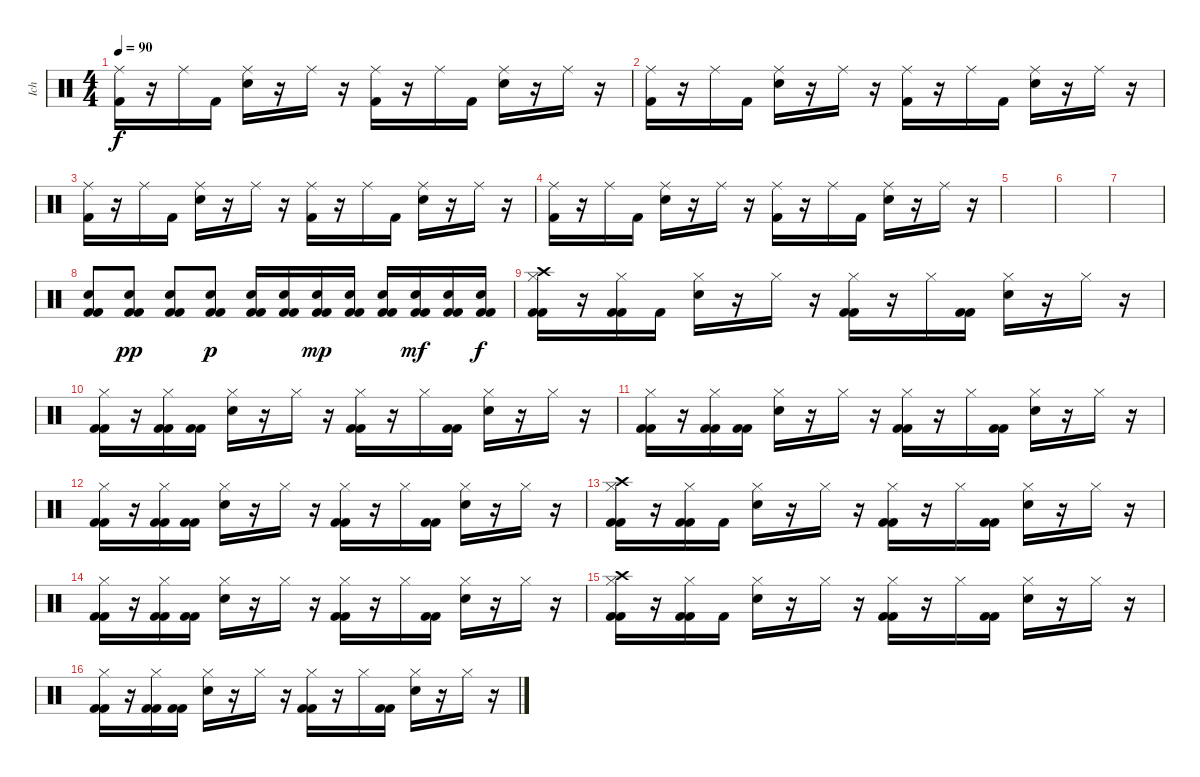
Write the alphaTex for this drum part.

\track ("Ich" "Ich") {instrument percussion}
\staff {score}
\articulation defaults
\ts (4 4)
\tempo 90
\clef neutral
\ks c
("Ride (middle)" "Kick (hit) 2").16{dy f} r.16 "Ride (middle)".16 "Kick (hit) 2".16 ("Ride (middle)" "Snare (hit) 2").16 r.16 "Ride (middle)".16 r.16 ("Ride (middle)" "Kick (hit) 2").16 r.16 "Ride (middle)".16 "Kick (hit) 2".16 ("Ride (middle)" "Snare (hit) 2").16 r.16 "Ride (middle)".16 r.16 |
("Ride (middle)" "Kick (hit) 2").16 r.16 "Ride (middle)".16 "Kick (hit) 2".16 ("Ride (middle)" "Snare (hit) 2").16 r.16 "Ride (middle)".16 r.16 ("Ride (middle)" "Kick (hit) 2").16 r.16 "Ride (middle)".16 "Kick (hit) 2".16 ("Ride (middle)" "Snare (hit) 2").16 r.16 "Ride (middle)".16 r.16 |
("Ride (middle)" "Kick (hit) 2").16 r.16 "Ride (middle)".16 "Kick (hit) 2".16 ("Ride (middle)" "Snare (hit) 2").16 r.16 "Ride (middle)".16 r.16 ("Ride (middle)" "Kick (hit) 2").16 r.16 "Ride (middle)".16 "Kick (hit) 2".16 ("Ride (middle)" "Snare (hit) 2").16 r.16 "Ride (middle)".16 r.16 |
("Ride (middle)" "Kick (hit) 2").16 r.16 "Ride (middle)".16 "Kick (hit) 2".16 ("Ride (middle)" "Snare (hit) 2").16 r.16 "Ride (middle)".16 r.16 ("Ride (middle)" "Kick (hit) 2").16 r.16 "Ride (middle)".16 "Kick (hit) 2".16 ("Ride (middle)" "Snare (hit) 2").16 r.16 "Ride (middle)".16 r.16 |
|
|
|
("Snare (hit) 2" "Kick (hit) 2" "Kick (hit) 2").8 ("Snare (hit) 2" "Kick (hit) 2" "Kick (hit) 2").8{dy pp} ("Snare (hit) 2" "Kick (hit) 2" "Kick (hit) 2").8 ("Snare (hit) 2" "Kick (hit) 2" "Kick (hit) 2").8{dy p} ("Snare (hit) 2" "Kick (hit) 2" "Kick (hit) 2").16 ("Snare (hit) 2" "Kick (hit) 2" "Kick (hit) 2").16 ("Snare (hit) 2" "Kick (hit) 2" "Kick (hit) 2").16{dy mp} ("Snare (hit) 2" "Kick (hit) 2" "Kick (hit) 2").16 ("Snare (hit) 2" "Kick (hit) 2" "Kick (hit) 2").16 ("Snare (hit) 2" "Kick (hit) 2" "Kick (hit) 2").16{dy mf} ("Snare (hit) 2" "Kick (hit) 2" "Kick (hit) 2").16 ("Snare (hit) 2" "Kick (hit) 2" "Kick (hit) 2").16{dy f} |
("Hi-Hat (closed)" "Crash high (hit)" "Kick (hit) 2" "Kick (hit) 2").16 r.16 ("Hi-Hat (closed)" "Kick (hit) 2" "Kick (hit) 2").16 "Kick (hit) 2".16 ("Hi-Hat (closed)" "Snare (hit) 2").16 r.16 "Hi-Hat (closed)".16 r.16 ("Hi-Hat (closed)" "Kick (hit) 2" "Kick (hit) 2").16 r.16 "Hi-Hat (closed)".16 ("Kick (hit) 2" "Kick (hit) 2").16 ("Hi-Hat (closed)" "Snare (hit) 2").16 r.16 "Hi-Hat (closed)".16 r.16 |
("Hi-Hat (closed)" "Kick (hit) 2" "Kick (hit) 2").16 r.16 ("Hi-Hat (closed)" "Kick (hit) 2" "Kick (hit) 2").16 ("Kick (hit) 2" "Kick (hit) 2").16 ("Hi-Hat (closed)" "Snare (hit) 2").16 r.16 "Hi-Hat (closed)".16 r.16 ("Hi-Hat (closed)" "Kick (hit) 2" "Kick (hit) 2").16 r.16 "Hi-Hat (closed)".16 ("Kick (hit) 2" "Kick (hit) 2").16 ("Hi-Hat (closed)" "Snare (hit) 2").16 r.16 "Hi-Hat (closed)".16 r.16 |
("Hi-Hat (closed)" "Kick (hit) 2" "Kick (hit) 2").16 r.16 ("Hi-Hat (closed)" "Kick (hit) 2" "Kick (hit) 2").16 ("Kick (hit) 2" "Kick (hit) 2").16 ("Hi-Hat (closed)" "Snare (hit) 2").16 r.16 "Hi-Hat (closed)".16 r.16 ("Hi-Hat (closed)" "Kick (hit) 2" "Kick (hit) 2").16 r.16 "Hi-Hat (closed)".16 ("Kick (hit) 2" "Kick (hit) 2").16 ("Hi-Hat (closed)" "Snare (hit) 2").16 r.16 "Hi-Hat (closed)".16 r.16 |
("Hi-Hat (closed)" "Kick (hit) 2" "Kick (hit) 2").16 r.16 ("Hi-Hat (closed)" "Kick (hit) 2" "Kick (hit) 2").16 ("Kick (hit) 2" "Kick (hit) 2").16 ("Hi-Hat (closed)" "Snare (hit) 2").16 r.16 "Hi-Hat (closed)".16 r.16 ("Hi-Hat (closed)" "Kick (hit) 2" "Kick (hit) 2").16 r.16 "Hi-Hat (closed)".16 ("Kick (hit) 2" "Kick (hit) 2").16 ("Hi-Hat (closed)" "Snare (hit) 2").16 r.16 "Hi-Hat (closed)".16 r.16 |
("Hi-Hat (closed)" "Crash high (hit)" "Kick (hit) 2" "Kick (hit) 2").16 r.16 ("Hi-Hat (closed)" "Kick (hit) 2" "Kick (hit) 2").16 "Kick (hit) 2".16 ("Hi-Hat (closed)" "Snare (hit) 2").16 r.16 "Hi-Hat (closed)".16 r.16 ("Hi-Hat (closed)" "Kick (hit) 2" "Kick (hit) 2").16 r.16 "Hi-Hat (closed)".16 ("Kick (hit) 2" "Kick (hit) 2").16 ("Hi-Hat (closed)" "Snare (hit) 2").16 r.16 "Hi-Hat (closed)".16 r.16 |
("Hi-Hat (closed)" "Kick (hit) 2" "Kick (hit) 2").16 r.16 ("Hi-Hat (closed)" "Kick (hit) 2" "Kick (hit) 2").16 ("Kick (hit) 2" "Kick (hit) 2").16 ("Hi-Hat (closed)" "Snare (hit) 2").16 r.16 "Hi-Hat (closed)".16 r.16 ("Hi-Hat (closed)" "Kick (hit) 2" "Kick (hit) 2").16 r.16 "Hi-Hat (closed)".16 ("Kick (hit) 2" "Kick (hit) 2").16 ("Hi-Hat (closed)" "Snare (hit) 2").16 r.16 "Hi-Hat (closed)".16 r.16 |
("Hi-Hat (closed)" "Crash high (hit)" "Kick (hit) 2" "Kick (hit) 2").16 r.16 ("Hi-Hat (closed)" "Kick (hit) 2" "Kick (hit) 2").16 "Kick (hit) 2".16 ("Hi-Hat (closed)" "Snare (hit) 2").16 r.16 "Hi-Hat (closed)".16 r.16 ("Hi-Hat (closed)" "Kick (hit) 2" "Kick (hit) 2").16 r.16 "Hi-Hat (closed)".16 ("Kick (hit) 2" "Kick (hit) 2").16 ("Hi-Hat (closed)" "Snare (hit) 2").16 r.16 "Hi-Hat (closed)".16 r.16 |
("Hi-Hat (closed)" "Kick (hit) 2" "Kick (hit) 2").16 r.16 ("Hi-Hat (closed)" "Kick (hit) 2" "Kick (hit) 2").16 ("Kick (hit) 2" "Kick (hit) 2").16 ("Hi-Hat (closed)" "Snare (hit) 2").16 r.16 "Hi-Hat (closed)".16 r.16 ("Hi-Hat (closed)" "Kick (hit) 2" "Kick (hit) 2").16 r.16 "Hi-Hat (closed)".16 ("Kick (hit) 2" "Kick (hit) 2").16 ("Hi-Hat (closed)" "Snare (hit) 2").16 r.16 "Hi-Hat (closed)".16 r.16
